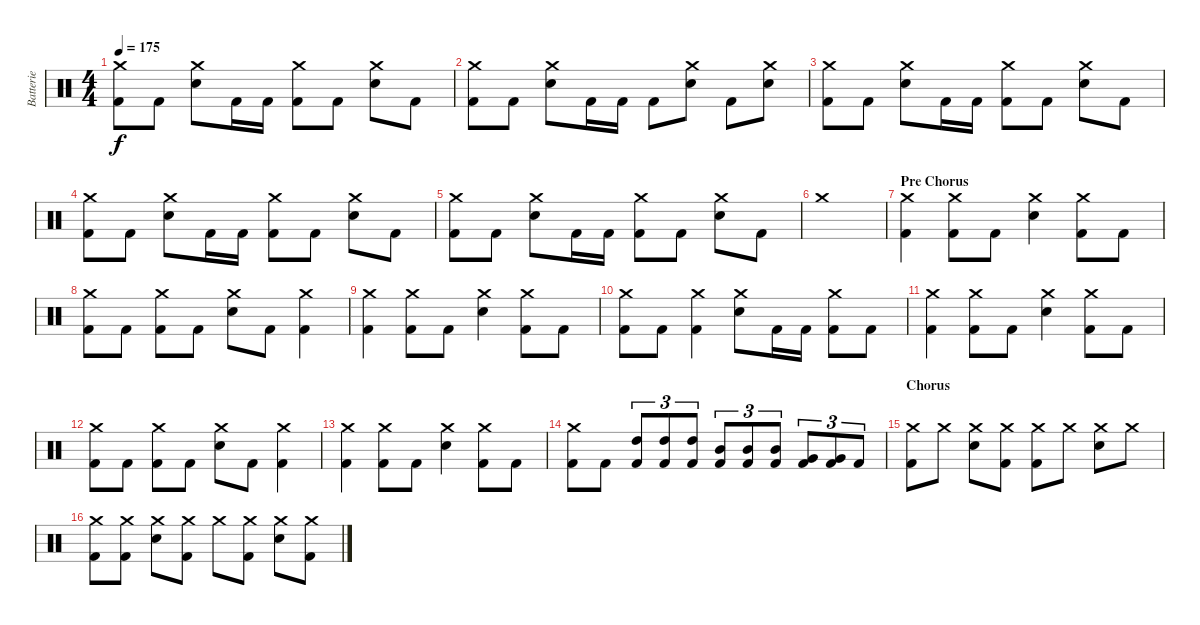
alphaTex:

\track ("Batterie" "Batterie") {instrument percussion}
\staff {score}
\articulation defaults
\ts (4 4)
\tempo 175
\clef neutral
\ks c
("Crash medium (hit)" "Kick (hit) 2").8{dy f} "Kick (hit) 2".8 ("Crash medium (hit)" "Electric Snare (hit)").8 "Kick (hit) 2".16 "Kick (hit) 2".16 ("Crash medium (hit)" "Kick (hit) 2").8 "Kick (hit) 2".8 ("Crash medium (hit)" "Electric Snare (hit)").8 "Kick (hit) 2".8 |
("Crash medium (hit)" "Kick (hit) 2").8 "Kick (hit) 2".8 ("Crash medium (hit)" "Electric Snare (hit)").8 "Kick (hit) 2".16 "Kick (hit) 2".16 "Kick (hit) 2".8 ("Crash medium (hit)" "Electric Snare (hit)").8 "Kick (hit) 2".8 ("Crash medium (hit)" "Electric Snare (hit)").8 |
("Crash medium (hit)" "Kick (hit) 2").8 "Kick (hit) 2".8 ("Crash medium (hit)" "Electric Snare (hit)").8 "Kick (hit) 2".16 "Kick (hit) 2".16 ("Crash medium (hit)" "Kick (hit) 2").8 "Kick (hit) 2".8 ("Crash medium (hit)" "Electric Snare (hit)").8 "Kick (hit) 2".8 |
("Crash medium (hit)" "Kick (hit) 2").8 "Kick (hit) 2".8 ("Crash medium (hit)" "Electric Snare (hit)").8 "Kick (hit) 2".16 "Kick (hit) 2".16 ("Crash medium (hit)" "Kick (hit) 2").8 "Kick (hit) 2".8 ("Crash medium (hit)" "Electric Snare (hit)").8 "Kick (hit) 2".8 |
("Crash medium (hit)" "Kick (hit) 2").8 "Kick (hit) 2".8 ("Crash medium (hit)" "Electric Snare (hit)").8 "Kick (hit) 2".16 "Kick (hit) 2".16 ("Crash medium (hit)" "Kick (hit) 2").8 "Kick (hit) 2".8 ("Crash medium (hit)" "Electric Snare (hit)").8 "Kick (hit) 2".8 |
"Crash medium (hit)".1 |
\section ("" "Pre Chorus")
("Crash medium (hit)" "Kick (hit) 2").4 ("Crash medium (hit)" "Kick (hit) 2").8 "Kick (hit) 2".8 ("Crash medium (hit)" "Electric Snare (hit)").4 ("Crash medium (hit)" "Kick (hit) 2").8 "Kick (hit) 2".8 |
("Crash medium (hit)" "Kick (hit) 2").8 "Kick (hit) 2".8 ("Crash medium (hit)" "Kick (hit) 2").8 "Kick (hit) 2".8 ("Crash medium (hit)" "Electric Snare (hit)").8 "Kick (hit) 2".8 ("Crash medium (hit)" "Kick (hit) 2").4 |
("Crash medium (hit)" "Kick (hit) 2").4 ("Crash medium (hit)" "Kick (hit) 2").8 "Kick (hit) 2".8 ("Crash medium (hit)" "Electric Snare (hit)").4 ("Crash medium (hit)" "Kick (hit) 2").8 "Kick (hit) 2".8 |
("Crash medium (hit)" "Kick (hit) 2").8 "Kick (hit) 2".8 ("Crash medium (hit)" "Kick (hit) 2").4 ("Crash medium (hit)" "Electric Snare (hit)").8 "Kick (hit) 2".16 "Kick (hit) 2".16 ("Crash medium (hit)" "Kick (hit) 2").8 "Kick (hit) 2".8 |
("Crash medium (hit)" "Kick (hit) 2").4 ("Crash medium (hit)" "Kick (hit) 2").8 "Kick (hit) 2".8 ("Crash medium (hit)" "Electric Snare (hit)").4 ("Crash medium (hit)" "Kick (hit) 2").8 "Kick (hit) 2".8 |
("Crash medium (hit)" "Kick (hit) 2").8 "Kick (hit) 2".8 ("Crash medium (hit)" "Kick (hit) 2").8 "Kick (hit) 2".8 ("Crash medium (hit)" "Electric Snare (hit)").8 "Kick (hit) 2".8 ("Crash medium (hit)" "Kick (hit) 2").4 |
("Crash medium (hit)" "Kick (hit) 2").4 ("Crash medium (hit)" "Kick (hit) 2").8 "Kick (hit) 2".8 ("Crash medium (hit)" "Electric Snare (hit)").4 ("Crash medium (hit)" "Kick (hit) 2").8 "Kick (hit) 2".8 |
("Crash medium (hit)" "Kick (hit) 2").8 "Kick (hit) 2".8 ("High Tom (hit)" "Kick (hit) 2").8{tu (3 2)} ("High Tom (hit)" "Kick (hit) 2").8{tu (3 2)} ("High Tom (hit)" "Kick (hit) 2").8{tu (3 2)} ("Mid Tom (hit)" "Kick (hit) 2").8{tu (3 2)} ("Mid Tom (hit)" "Kick (hit) 2").8{tu (3 2)} ("Mid Tom (hit)" "Kick (hit) 2").8{tu (3 2)} ("Very Low Tom (hit)" "Kick (hit) 2").8{tu (3 2)} ("Very Low Tom (hit)" "Kick (hit) 2").8{tu (3 2)} "Kick (hit) 2".8{tu (3 2)} |
\section ("" "Chorus")
("Crash medium (hit)" "Kick (hit) 2").8 "Crash medium (hit)".8 ("Crash medium (hit)" "Electric Snare (hit)").8 ("Crash medium (hit)" "Kick (hit) 2").8 ("Crash medium (hit)" "Kick (hit) 2").8 "Crash medium (hit)".8 ("Crash medium (hit)" "Electric Snare (hit)").8 "Crash medium (hit)".8 |
("Crash medium (hit)" "Kick (hit) 2").8 ("Crash medium (hit)" "Kick (hit) 2").8 ("Crash medium (hit)" "Electric Snare (hit)").8 ("Crash medium (hit)" "Kick (hit) 2").8 "Crash medium (hit)".8 ("Crash medium (hit)" "Kick (hit) 2").8 ("Crash medium (hit)" "Electric Snare (hit)").8 ("Crash medium (hit)" "Kick (hit) 2").8
